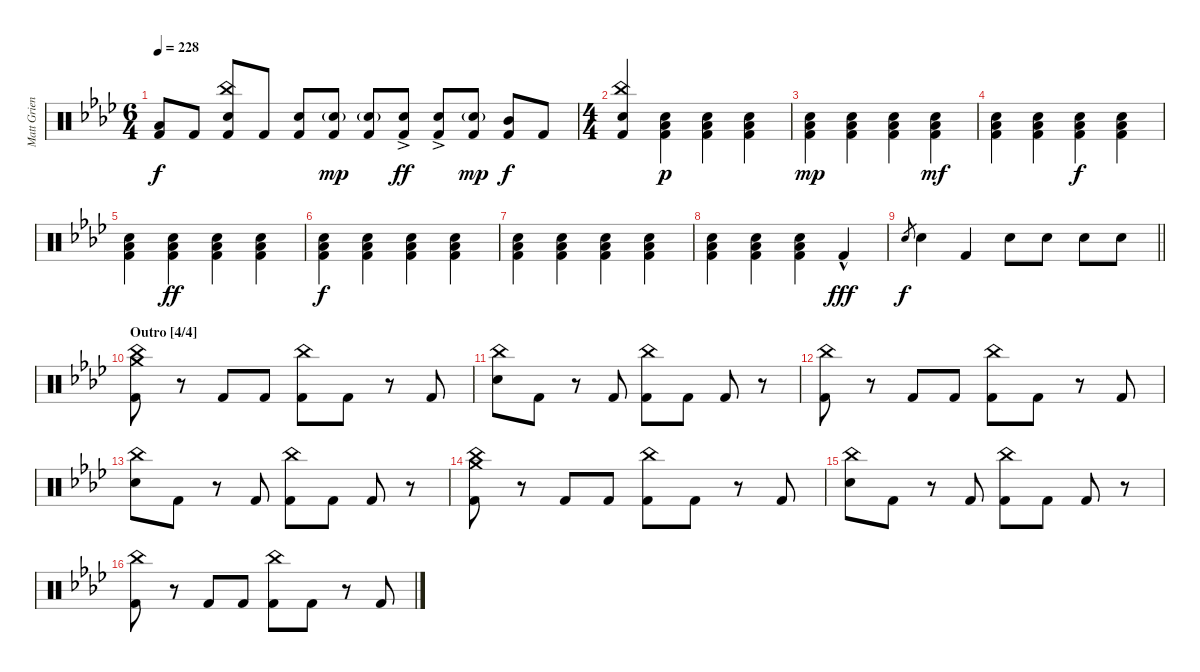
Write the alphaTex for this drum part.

\track ("Matt Griener [Drum Kit]" "Matt Grien") {instrument percussion}
\staff {score}
\articulation defaults
\ts (6 4)
\tempo 228
\clef neutral
\ks fminor
("Low Floor Tom (hit)" "Kick (hit) 2").8{dy f} "Kick (hit) 2".8 ("China (hit)" "Electric Snare (hit)" "Kick (hit) 2").8 "Kick (hit) 2".8 ("Electric Snare (hit)" "Kick (hit) 2").8 ("Electric Snare (hit)"{g} "Kick (hit) 2").8{dy mp} ("Electric Snare (hit)"{g} "Kick (hit) 2").8 ("Electric Snare (hit)"{ac} "Kick (hit) 2").8{dy ff} ("Electric Snare (hit)"{ac} "Kick (hit) 2").8 ("Electric Snare (hit)"{g} "Kick (hit) 2").8{dy mp} ("Mid Tom (hit)" "Kick (hit) 2").8{dy f} "Kick (hit) 2".8 |
\ts (4 4)
("China (hit)" "Electric Snare (hit)" "Kick (hit) 2").4 ("Electric Snare (hit)" "Low Floor Tom (hit)" "Kick (hit) 2").4{dy p} ("Electric Snare (hit)" "Low Floor Tom (hit)" "Kick (hit) 2").4 ("Electric Snare (hit)" "Low Floor Tom (hit)" "Kick (hit) 2").4 |
("Electric Snare (hit)" "Low Floor Tom (hit)" "Kick (hit) 2").4{dy mp} ("Electric Snare (hit)" "Low Floor Tom (hit)" "Kick (hit) 2").4 ("Electric Snare (hit)" "Low Floor Tom (hit)" "Kick (hit) 2").4 ("Electric Snare (hit)" "Low Floor Tom (hit)" "Kick (hit) 2").4{dy mf} |
("Electric Snare (hit)" "Low Floor Tom (hit)" "Kick (hit) 2").4 ("Electric Snare (hit)" "Low Floor Tom (hit)" "Kick (hit) 2").4 ("Electric Snare (hit)" "Low Floor Tom (hit)" "Kick (hit) 2").4{dy f} ("Electric Snare (hit)" "Low Floor Tom (hit)" "Kick (hit) 2").4 |
("Electric Snare (hit)" "Low Floor Tom (hit)" "Kick (hit) 2").4 ("Electric Snare (hit)" "Low Floor Tom (hit)" "Kick (hit) 2").4{dy ff} ("Electric Snare (hit)" "Low Floor Tom (hit)" "Kick (hit) 2").4 ("Electric Snare (hit)" "Low Floor Tom (hit)" "Kick (hit) 2").4 |
("Electric Snare (hit)" "Low Floor Tom (hit)" "Kick (hit) 2").4{dy f} ("Electric Snare (hit)" "Low Floor Tom (hit)" "Kick (hit) 2").4 ("Electric Snare (hit)" "Low Floor Tom (hit)" "Kick (hit) 2").4 ("Electric Snare (hit)" "Low Floor Tom (hit)" "Kick (hit) 2").4 |
("Electric Snare (hit)" "Low Floor Tom (hit)" "Kick (hit) 2").4 ("Electric Snare (hit)" "Low Floor Tom (hit)" "Kick (hit) 2").4 ("Electric Snare (hit)" "Low Floor Tom (hit)" "Kick (hit) 2").4 ("Electric Snare (hit)" "Low Floor Tom (hit)" "Kick (hit) 2").4 |
("Electric Snare (hit)" "Low Floor Tom (hit)" "Kick (hit) 2").4 ("Electric Snare (hit)" "Low Floor Tom (hit)" "Kick (hit) 2").4 ("Electric Snare (hit)" "Low Floor Tom (hit)" "Kick (hit) 2").4 "Kick (hit) 2"{hac}.4{dy fff} |
\barLineRight lightlight "Electric Snare (hit)".8{gr dy f} "Electric Snare (hit)".4 "Kick (hit) 2".4 "Electric Snare (hit)".8 "Electric Snare (hit)".8 "Electric Snare (hit)".8 "Electric Snare (hit)".8
|
\section ("" "Outro [4/4]")
("Crash medium (hit)" "China (hit)" "Kick (hit) 2").8 r.8 "Kick (hit) 2".8 "Kick (hit) 2".8 ("China (hit)" "Kick (hit) 2").8 "Kick (hit) 2".8 r.8 "Kick (hit) 2".8 |
("China (hit)" "Electric Snare (hit)").8 "Kick (hit) 2".8 r.8 "Kick (hit) 2".8 ("China (hit)" "Kick (hit) 2").8 "Kick (hit) 2".8 "Kick (hit) 2".8 r.8 |
("China (hit)" "Kick (hit) 2").8 r.8 "Kick (hit) 2".8 "Kick (hit) 2".8 ("China (hit)" "Kick (hit) 2").8 "Kick (hit) 2".8 r.8 "Kick (hit) 2".8 |
("China (hit)" "Electric Snare (hit)").8 "Kick (hit) 2".8 r.8 "Kick (hit) 2".8 ("China (hit)" "Kick (hit) 2").8 "Kick (hit) 2".8 "Kick (hit) 2".8 r.8 |
("Crash medium (hit)" "China (hit)" "Kick (hit) 2").8 r.8 "Kick (hit) 2".8 "Kick (hit) 2".8 ("China (hit)" "Kick (hit) 2").8 "Kick (hit) 2".8 r.8 "Kick (hit) 2".8 |
("China (hit)" "Electric Snare (hit)").8 "Kick (hit) 2".8 r.8 "Kick (hit) 2".8 ("China (hit)" "Kick (hit) 2").8 "Kick (hit) 2".8 "Kick (hit) 2".8 r.8 |
("China (hit)" "Kick (hit) 2").8 r.8 "Kick (hit) 2".8 "Kick (hit) 2".8 ("China (hit)" "Kick (hit) 2").8 "Kick (hit) 2".8 r.8 "Kick (hit) 2".8
